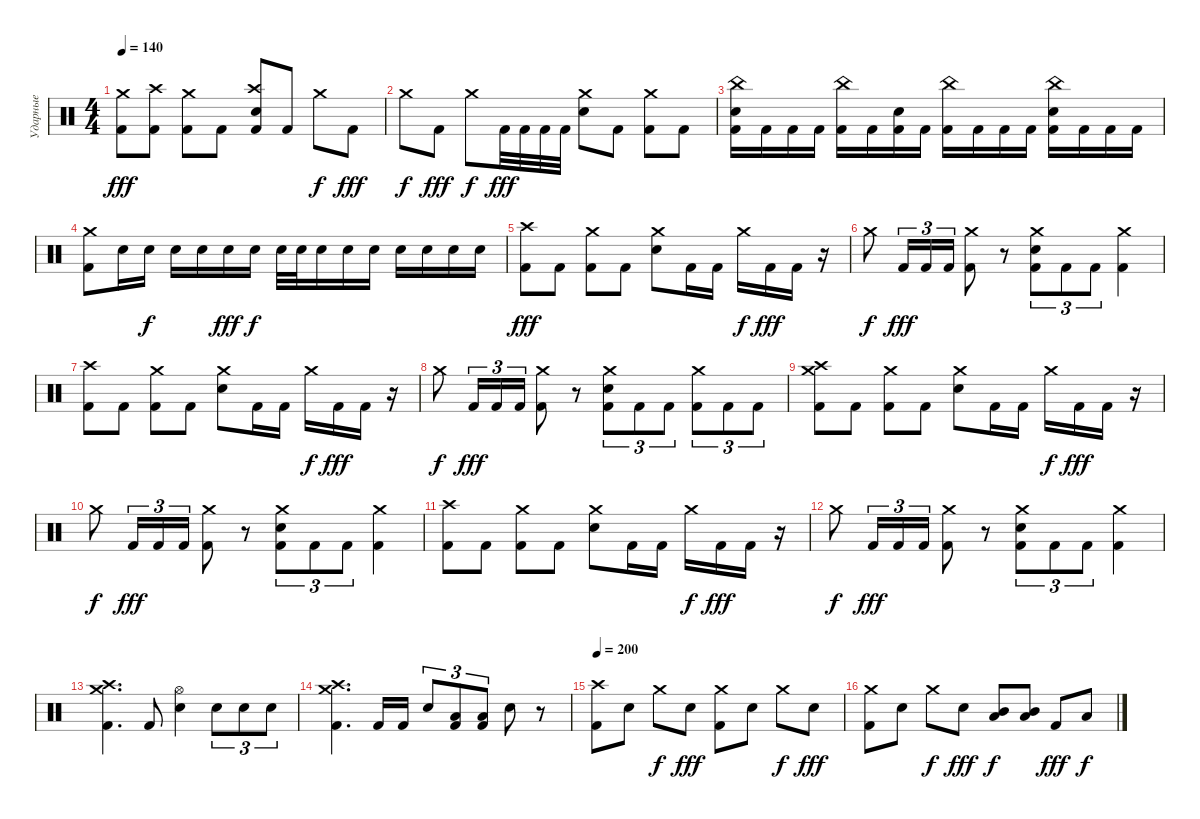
\track ("Ударные" "Ударные") {instrument percussion}
\staff {score}
\articulation defaults
\ts (4 4)
\tempo 140
\clef neutral
\ks c
("Crash medium (hit)" "Kick (hit) 2").8{dy fff} ("Crash high (hit)" "Kick (hit) 2").8 ("Crash medium (hit)" "Kick (hit) 2").8 "Kick (hit) 2".8 ("Crash high (hit)" "Electric Snare (hit)" "Kick (hit) 2").8 "Kick (hit) 2".8 "Crash medium (hit)".8{dy f} "Kick (hit) 2".8{dy fff} |
"Crash medium (hit)".8{dy f} "Kick (hit) 2".8{dy fff} "Crash medium (hit)".8{dy f} "Kick (hit) 2".32{dy fff} "Kick (hit) 2".32 "Kick (hit) 2".32 "Kick (hit) 2".32 ("Crash medium (hit)" "Electric Snare (hit)").8 "Kick (hit) 2".8 ("Crash medium (hit)" "Kick (hit) 2").8 "Kick (hit) 2".8 |
("China (hit)" "Electric Snare (hit)" "Kick (hit) 2").16 "Kick (hit) 2".16 "Kick (hit) 2".16 "Kick (hit) 2".16 ("China (hit)" "Kick (hit) 2").16 "Kick (hit) 2".16 ("Electric Snare (hit)" "Kick (hit) 2").16 "Kick (hit) 2".16 ("China (hit)" "Kick (hit) 2").16 "Kick (hit) 2".16 "Kick (hit) 2".16 "Kick (hit) 2".16 ("China (hit)" "Electric Snare (hit)" "Kick (hit) 2").16 "Kick (hit) 2".16 "Kick (hit) 2".16 "Kick (hit) 2".16 |
("Crash medium (hit)" "Kick (hit) 2").8 "Electric Snare (hit)".16 "Electric Snare (hit)".16{dy f} "Electric Snare (hit)".16 "Electric Snare (hit)".16 "Electric Snare (hit)".16{dy fff} "Electric Snare (hit)".16{dy f} "Electric Snare (hit)".32 "Electric Snare (hit)".32 "Electric Snare (hit)".16 "Electric Snare (hit)".16 "Electric Snare (hit)".16 "Electric Snare (hit)".16 "Electric Snare (hit)".16 "Electric Snare (hit)".16 "Electric Snare (hit)".16 |
("Crash high (hit)" "Kick (hit) 2").8{dy fff} "Kick (hit) 2".8 ("Crash medium (hit)" "Kick (hit) 2").8 "Kick (hit) 2".8 ("Crash medium (hit)" "Electric Snare (hit)").8 "Kick (hit) 2".16 "Kick (hit) 2".16 "Crash medium (hit)".16{dy f} "Kick (hit) 2".16{dy fff} "Kick (hit) 2".16 r.16 |
"Crash medium (hit)".8{dy f} "Kick (hit) 2".16{tu (3 2) dy fff} "Kick (hit) 2".16{tu (3 2)} "Kick (hit) 2".16{tu (3 2)} ("Crash medium (hit)" "Kick (hit) 2").8 r.8 ("Crash medium (hit)" "Electric Snare (hit)" "Kick (hit) 2").8{tu (3 2)} "Kick (hit) 2".8{tu (3 2)} "Kick (hit) 2".8{tu (3 2)} ("Crash medium (hit)" "Kick (hit) 2").4 |
("Crash high (hit)" "Kick (hit) 2").8 "Kick (hit) 2".8 ("Crash medium (hit)" "Kick (hit) 2").8 "Kick (hit) 2".8 ("Crash medium (hit)" "Electric Snare (hit)").8 "Kick (hit) 2".16 "Kick (hit) 2".16 "Crash medium (hit)".16{dy f} "Kick (hit) 2".16{dy fff} "Kick (hit) 2".16 r.16 |
"Crash medium (hit)".8{dy f} "Kick (hit) 2".16{tu (3 2) dy fff} "Kick (hit) 2".16{tu (3 2)} "Kick (hit) 2".16{tu (3 2)} ("Crash medium (hit)" "Kick (hit) 2").8 r.8 ("Crash medium (hit)" "Electric Snare (hit)" "Kick (hit) 2").8{tu (3 2)} "Kick (hit) 2".8{tu (3 2)} "Kick (hit) 2".8{tu (3 2)} ("Crash medium (hit)" "Kick (hit) 2").8{tu (3 2)} "Kick (hit) 2".8{tu (3 2)} "Kick (hit) 2".8{tu (3 2)} |
("Crash high (hit)" "Crash medium (hit)" "Kick (hit) 2").8 "Kick (hit) 2".8 ("Crash medium (hit)" "Kick (hit) 2").8 "Kick (hit) 2".8 ("Crash medium (hit)" "Electric Snare (hit)").8 "Kick (hit) 2".16 "Kick (hit) 2".16 "Crash medium (hit)".16{dy f} "Kick (hit) 2".16{dy fff} "Kick (hit) 2".16 r.16 |
"Crash medium (hit)".8{dy f} "Kick (hit) 2".16{tu (3 2) dy fff} "Kick (hit) 2".16{tu (3 2)} "Kick (hit) 2".16{tu (3 2)} ("Crash medium (hit)" "Kick (hit) 2").8 r.8 ("Crash medium (hit)" "Electric Snare (hit)" "Kick (hit) 2").8{tu (3 2)} "Kick (hit) 2".8{tu (3 2)} "Kick (hit) 2".8{tu (3 2)} ("Crash medium (hit)" "Kick (hit) 2").4 |
("Crash high (hit)" "Kick (hit) 2").8 "Kick (hit) 2".8 ("Crash medium (hit)" "Kick (hit) 2").8 "Kick (hit) 2".8 ("Crash medium (hit)" "Electric Snare (hit)").8 "Kick (hit) 2".16 "Kick (hit) 2".16 "Crash medium (hit)".16{dy f} "Kick (hit) 2".16{dy fff} "Kick (hit) 2".16 r.16 |
"Crash medium (hit)".8{dy f} "Kick (hit) 2".16{tu (3 2) dy fff} "Kick (hit) 2".16{tu (3 2)} "Kick (hit) 2".16{tu (3 2)} ("Crash medium (hit)" "Kick (hit) 2").8 r.8 ("Crash medium (hit)" "Electric Snare (hit)" "Kick (hit) 2").8{tu (3 2)} "Kick (hit) 2".8{tu (3 2)} "Kick (hit) 2".8{tu (3 2)} ("Crash medium (hit)" "Kick (hit) 2").4 |
("Crash high (hit)" "Crash medium (hit)" "Kick (hit) 2").4{d} "Kick (hit) 2".8 ("Hi-Hat (open)" "Electric Snare (hit)").4 "Electric Snare (hit)".8{tu (3 2)} "Electric Snare (hit)".8{tu (3 2)} "Electric Snare (hit)".8{tu (3 2)} |
("Crash high (hit)" "Crash medium (hit)" "Kick (hit) 2").4{d} "Kick (hit) 2".16 "Kick (hit) 2".16 "Electric Snare (hit)".8{tu (3 2)} ("Low Floor Tom (hit)" "Kick (hit) 2").8{tu (3 2)} ("Low Floor Tom (hit)" "Kick (hit) 2").8{tu (3 2)} "Electric Snare (hit)".8 r.8 |
\tempo 200
("Crash high (hit)" "Kick (hit) 2").8 "Electric Snare (hit)".8 "Crash medium (hit)".8{dy f} "Electric Snare (hit)".8{dy fff} ("Crash medium (hit)" "Kick (hit) 2").8 "Electric Snare (hit)".8 "Crash medium (hit)".8{dy f} "Electric Snare (hit)".8{dy fff} |
("Crash medium (hit)" "Kick (hit) 2").8 "Electric Snare (hit)".8 "Crash medium (hit)".8{dy f} "Electric Snare (hit)".8{dy fff} ("Mid Tom (hit)" "Low Floor Tom (hit)").8{dy f} ("Mid Tom (hit)" "Low Floor Tom (hit)").8 "Kick (hit) 2".8{dy fff} "Low Floor Tom (hit)".8{dy f}
